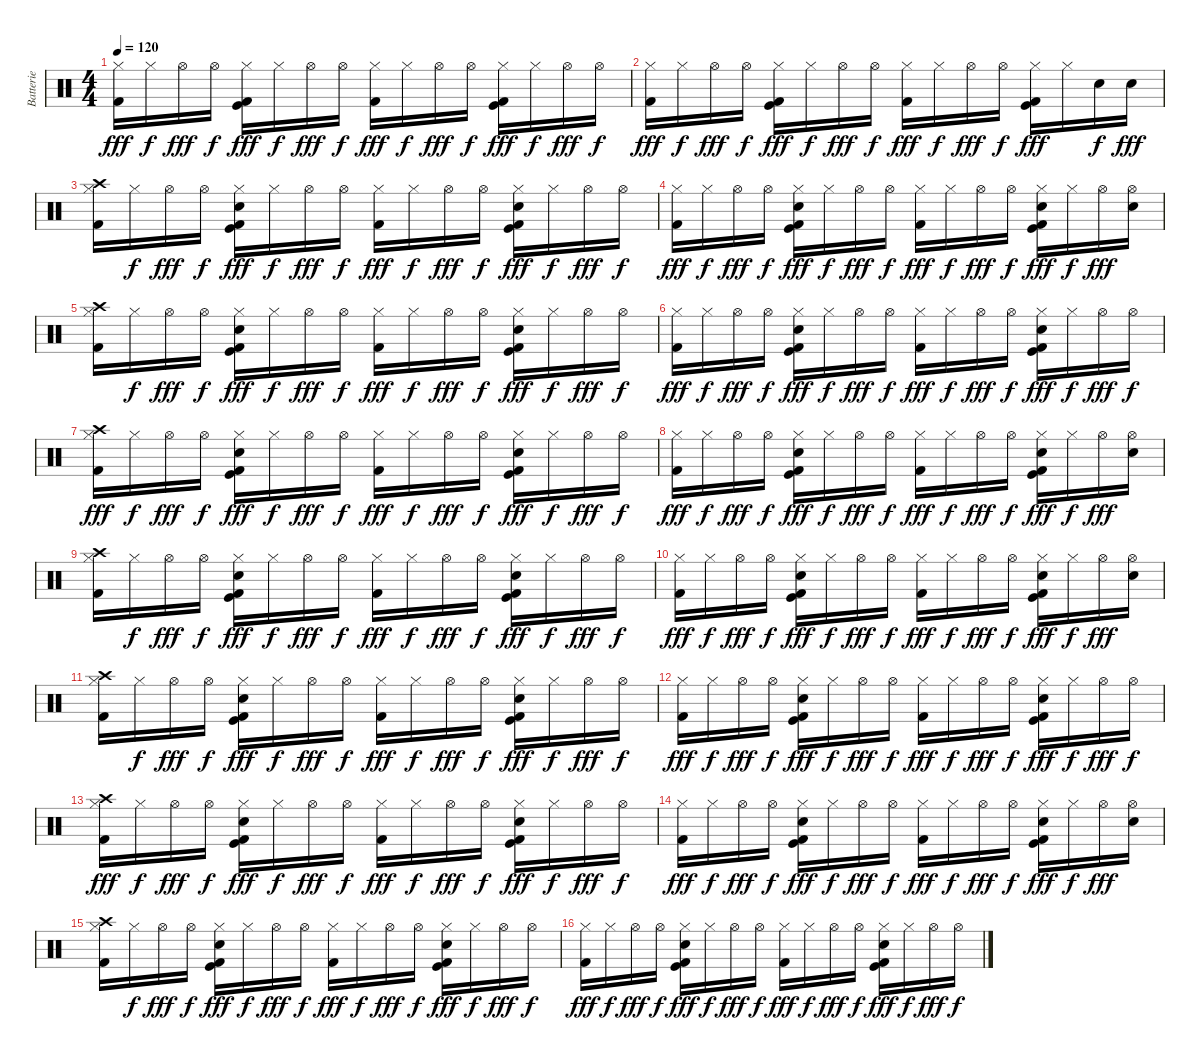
\track ("Batterie" "Batterie") {instrument percussion}
\staff {score}
\articulation defaults
\ts (4 4)
\tempo 120
\clef neutral
\ks c
("Hi-Hat (closed)" "Kick (hit) 2").16{dy fff} "Hi-Hat (closed)".16{dy f} "Hi-Hat (open)".16{dy fff} "Hi-Hat (open)".16{dy f} ("Hi-Hat (closed)" "Kick (hit)" "Kick (hit) 2").16{dy fff} "Hi-Hat (closed)".16{dy f} "Hi-Hat (open)".16{dy fff} "Hi-Hat (open)".16{dy f} ("Hi-Hat (closed)" "Kick (hit) 2").16{dy fff} "Hi-Hat (closed)".16{dy f} "Hi-Hat (open)".16{dy fff} "Hi-Hat (open)".16{dy f} ("Hi-Hat (closed)" "Kick (hit)" "Kick (hit) 2").16{dy fff} "Hi-Hat (closed)".16{dy f} "Hi-Hat (open)".16{dy fff} "Hi-Hat (open)".16{dy f} |
("Hi-Hat (closed)" "Kick (hit) 2").16{dy fff} "Hi-Hat (closed)".16{dy f} "Hi-Hat (open)".16{dy fff} "Hi-Hat (open)".16{dy f} ("Hi-Hat (closed)" "Kick (hit)" "Kick (hit) 2").16{dy fff} "Hi-Hat (closed)".16{dy f} "Hi-Hat (open)".16{dy fff} "Hi-Hat (open)".16{dy f} ("Hi-Hat (closed)" "Kick (hit) 2").16{dy fff} "Hi-Hat (closed)".16{dy f} "Hi-Hat (open)".16{dy fff} "Hi-Hat (open)".16{dy f} ("Hi-Hat (closed)" "Kick (hit)" "Kick (hit) 2").16{dy fff} "Hi-Hat (closed)".16 "Electric Snare (hit)".16{dy f} "Electric Snare (hit)".16{dy fff} |
("Hi-Hat (closed)" "Crash high (hit)" "Kick (hit) 2").16 "Hi-Hat (closed)".16{dy f} "Hi-Hat (open)".16{dy fff} "Hi-Hat (open)".16{dy f} ("Hi-Hat (closed)" "Electric Snare (hit)" "Kick (hit)" "Kick (hit) 2").16{dy fff} "Hi-Hat (closed)".16{dy f} "Hi-Hat (open)".16{dy fff} "Hi-Hat (open)".16{dy f} ("Hi-Hat (closed)" "Kick (hit) 2").16{dy fff} "Hi-Hat (closed)".16{dy f} "Hi-Hat (open)".16{dy fff} "Hi-Hat (open)".16{dy f} ("Hi-Hat (closed)" "Electric Snare (hit)" "Kick (hit)" "Kick (hit) 2").16{dy fff} "Hi-Hat (closed)".16{dy f} "Hi-Hat (open)".16{dy fff} "Hi-Hat (open)".16{dy f} |
("Hi-Hat (closed)" "Kick (hit) 2").16{dy fff} "Hi-Hat (closed)".16{dy f} "Hi-Hat (open)".16{dy fff} "Hi-Hat (open)".16{dy f} ("Hi-Hat (closed)" "Electric Snare (hit)" "Kick (hit) 2" "Kick (hit)").16{dy fff} "Hi-Hat (closed)".16{dy f} "Hi-Hat (open)".16{dy fff} "Hi-Hat (open)".16{dy f} ("Hi-Hat (closed)" "Kick (hit) 2").16{dy fff} "Hi-Hat (closed)".16{dy f} "Hi-Hat (open)".16{dy fff} "Hi-Hat (open)".16{dy f} ("Hi-Hat (closed)" "Electric Snare (hit)" "Kick (hit)" "Kick (hit) 2").16{dy fff} "Hi-Hat (closed)".16{dy f} "Hi-Hat (open)".16{dy fff} ("Hi-Hat (open)" "Electric Snare (hit)").16 |
("Hi-Hat (closed)" "Crash high (hit)" "Kick (hit) 2").16 "Hi-Hat (closed)".16{dy f} "Hi-Hat (open)".16{dy fff} "Hi-Hat (open)".16{dy f} ("Hi-Hat (closed)" "Electric Snare (hit)" "Kick (hit)" "Kick (hit) 2").16{dy fff} "Hi-Hat (closed)".16{dy f} "Hi-Hat (open)".16{dy fff} "Hi-Hat (open)".16{dy f} ("Hi-Hat (closed)" "Kick (hit) 2").16{dy fff} "Hi-Hat (closed)".16{dy f} "Hi-Hat (open)".16{dy fff} "Hi-Hat (open)".16{dy f} ("Hi-Hat (closed)" "Electric Snare (hit)" "Kick (hit)" "Kick (hit) 2").16{dy fff} "Hi-Hat (closed)".16{dy f} "Hi-Hat (open)".16{dy fff} "Hi-Hat (open)".16{dy f} |
("Hi-Hat (closed)" "Kick (hit) 2").16{dy fff} "Hi-Hat (closed)".16{dy f} "Hi-Hat (open)".16{dy fff} "Hi-Hat (open)".16{dy f} ("Hi-Hat (closed)" "Electric Snare (hit)" "Kick (hit)" "Kick (hit) 2").16{dy fff} "Hi-Hat (closed)".16{dy f} "Hi-Hat (open)".16{dy fff} "Hi-Hat (open)".16{dy f} ("Hi-Hat (closed)" "Kick (hit) 2").16{dy fff} "Hi-Hat (closed)".16{dy f} "Hi-Hat (open)".16{dy fff} "Hi-Hat (open)".16{dy f} ("Hi-Hat (closed)" "Electric Snare (hit)" "Kick (hit)" "Kick (hit) 2").16{dy fff} "Hi-Hat (closed)".16{dy f} "Hi-Hat (open)".16{dy fff} "Hi-Hat (open)".16{dy f} |
("Hi-Hat (closed)" "Crash high (hit)" "Kick (hit) 2").16{dy fff} "Hi-Hat (closed)".16{dy f} "Hi-Hat (open)".16{dy fff} "Hi-Hat (open)".16{dy f} ("Hi-Hat (closed)" "Electric Snare (hit)" "Kick (hit) 2" "Kick (hit)").16{dy fff} "Hi-Hat (closed)".16{dy f} "Hi-Hat (open)".16{dy fff} "Hi-Hat (open)".16{dy f} ("Hi-Hat (closed)" "Kick (hit) 2").16{dy fff} "Hi-Hat (closed)".16{dy f} "Hi-Hat (open)".16{dy fff} "Hi-Hat (open)".16{dy f} ("Hi-Hat (closed)" "Electric Snare (hit)" "Kick (hit)" "Kick (hit) 2").16{dy fff} "Hi-Hat (closed)".16{dy f} "Hi-Hat (open)".16{dy fff} "Hi-Hat (open)".16{dy f} |
("Hi-Hat (closed)" "Kick (hit) 2").16{dy fff} "Hi-Hat (closed)".16{dy f} "Hi-Hat (open)".16{dy fff} "Hi-Hat (open)".16{dy f} ("Hi-Hat (closed)" "Electric Snare (hit)" "Kick (hit) 2" "Kick (hit)").16{dy fff} "Hi-Hat (closed)".16{dy f} "Hi-Hat (open)".16{dy fff} "Hi-Hat (open)".16{dy f} ("Hi-Hat (closed)" "Kick (hit) 2").16{dy fff} "Hi-Hat (closed)".16{dy f} "Hi-Hat (open)".16{dy fff} "Hi-Hat (open)".16{dy f} ("Hi-Hat (closed)" "Electric Snare (hit)" "Kick (hit)" "Kick (hit) 2").16{dy fff} "Hi-Hat (closed)".16{dy f} "Hi-Hat (open)".16{dy fff} ("Hi-Hat (open)" "Electric Snare (hit)").16 |
("Hi-Hat (closed)" "Crash high (hit)" "Kick (hit) 2").16 "Hi-Hat (closed)".16{dy f} "Hi-Hat (open)".16{dy fff} "Hi-Hat (open)".16{dy f} ("Hi-Hat (closed)" "Electric Snare (hit)" "Kick (hit) 2" "Kick (hit)").16{dy fff} "Hi-Hat (closed)".16{dy f} "Hi-Hat (open)".16{dy fff} "Hi-Hat (open)".16{dy f} ("Hi-Hat (closed)" "Kick (hit) 2").16{dy fff} "Hi-Hat (closed)".16{dy f} "Hi-Hat (open)".16{dy fff} "Hi-Hat (open)".16{dy f} ("Hi-Hat (closed)" "Electric Snare (hit)" "Kick (hit)" "Kick (hit) 2").16{dy fff} "Hi-Hat (closed)".16{dy f} "Hi-Hat (open)".16{dy fff} "Hi-Hat (open)".16{dy f} |
("Hi-Hat (closed)" "Kick (hit) 2").16{dy fff} "Hi-Hat (closed)".16{dy f} "Hi-Hat (open)".16{dy fff} "Hi-Hat (open)".16{dy f} ("Hi-Hat (closed)" "Electric Snare (hit)" "Kick (hit) 2" "Kick (hit)").16{dy fff} "Hi-Hat (closed)".16{dy f} "Hi-Hat (open)".16{dy fff} "Hi-Hat (open)".16{dy f} ("Hi-Hat (closed)" "Kick (hit) 2").16{dy fff} "Hi-Hat (closed)".16{dy f} "Hi-Hat (open)".16{dy fff} "Hi-Hat (open)".16{dy f} ("Hi-Hat (closed)" "Electric Snare (hit)" "Kick (hit)" "Kick (hit) 2").16{dy fff} "Hi-Hat (closed)".16{dy f} "Hi-Hat (open)".16{dy fff} ("Hi-Hat (open)" "Electric Snare (hit)").16 |
("Hi-Hat (closed)" "Crash high (hit)" "Kick (hit) 2").16 "Hi-Hat (closed)".16{dy f} "Hi-Hat (open)".16{dy fff} "Hi-Hat (open)".16{dy f} ("Hi-Hat (closed)" "Electric Snare (hit)" "Kick (hit) 2" "Kick (hit)").16{dy fff} "Hi-Hat (closed)".16{dy f} "Hi-Hat (open)".16{dy fff} "Hi-Hat (open)".16{dy f} ("Hi-Hat (closed)" "Kick (hit) 2").16{dy fff} "Hi-Hat (closed)".16{dy f} "Hi-Hat (open)".16{dy fff} "Hi-Hat (open)".16{dy f} ("Hi-Hat (closed)" "Electric Snare (hit)" "Kick (hit)" "Kick (hit) 2").16{dy fff} "Hi-Hat (closed)".16{dy f} "Hi-Hat (open)".16{dy fff} "Hi-Hat (open)".16{dy f} |
("Hi-Hat (closed)" "Kick (hit) 2").16{dy fff} "Hi-Hat (closed)".16{dy f} "Hi-Hat (open)".16{dy fff} "Hi-Hat (open)".16{dy f} ("Hi-Hat (closed)" "Electric Snare (hit)" "Kick (hit) 2" "Kick (hit)").16{dy fff} "Hi-Hat (closed)".16{dy f} "Hi-Hat (open)".16{dy fff} "Hi-Hat (open)".16{dy f} ("Hi-Hat (closed)" "Kick (hit) 2").16{dy fff} "Hi-Hat (closed)".16{dy f} "Hi-Hat (open)".16{dy fff} "Hi-Hat (open)".16{dy f} ("Hi-Hat (closed)" "Electric Snare (hit)" "Kick (hit)" "Kick (hit) 2").16{dy fff} "Hi-Hat (closed)".16{dy f} "Hi-Hat (open)".16{dy fff} "Hi-Hat (open)".16{dy f} |
("Hi-Hat (closed)" "Crash high (hit)" "Kick (hit) 2").16{dy fff} "Hi-Hat (closed)".16{dy f} "Hi-Hat (open)".16{dy fff} "Hi-Hat (open)".16{dy f} ("Hi-Hat (closed)" "Electric Snare (hit)" "Kick (hit) 2" "Kick (hit)").16{dy fff} "Hi-Hat (closed)".16{dy f} "Hi-Hat (open)".16{dy fff} "Hi-Hat (open)".16{dy f} ("Hi-Hat (closed)" "Kick (hit) 2").16{dy fff} "Hi-Hat (closed)".16{dy f} "Hi-Hat (open)".16{dy fff} "Hi-Hat (open)".16{dy f} ("Hi-Hat (closed)" "Electric Snare (hit)" "Kick (hit)" "Kick (hit) 2").16{dy fff} "Hi-Hat (closed)".16{dy f} "Hi-Hat (open)".16{dy fff} "Hi-Hat (open)".16{dy f} |
("Hi-Hat (closed)" "Kick (hit) 2").16{dy fff} "Hi-Hat (closed)".16{dy f} "Hi-Hat (open)".16{dy fff} "Hi-Hat (open)".16{dy f} ("Hi-Hat (closed)" "Electric Snare (hit)" "Kick (hit) 2" "Kick (hit)").16{dy fff} "Hi-Hat (closed)".16{dy f} "Hi-Hat (open)".16{dy fff} "Hi-Hat (open)".16{dy f} ("Hi-Hat (closed)" "Kick (hit) 2").16{dy fff} "Hi-Hat (closed)".16{dy f} "Hi-Hat (open)".16{dy fff} "Hi-Hat (open)".16{dy f} ("Hi-Hat (closed)" "Electric Snare (hit)" "Kick (hit)" "Kick (hit) 2").16{dy fff} "Hi-Hat (closed)".16{dy f} "Hi-Hat (open)".16{dy fff} ("Hi-Hat (open)" "Electric Snare (hit)").16 |
("Hi-Hat (closed)" "Crash high (hit)" "Kick (hit) 2").16 "Hi-Hat (closed)".16{dy f} "Hi-Hat (open)".16{dy fff} "Hi-Hat (open)".16{dy f} ("Hi-Hat (closed)" "Electric Snare (hit)" "Kick (hit) 2" "Kick (hit)").16{dy fff} "Hi-Hat (closed)".16{dy f} "Hi-Hat (open)".16{dy fff} "Hi-Hat (open)".16{dy f} ("Hi-Hat (closed)" "Kick (hit) 2").16{dy fff} "Hi-Hat (closed)".16{dy f} "Hi-Hat (open)".16{dy fff} "Hi-Hat (open)".16{dy f} ("Hi-Hat (closed)" "Electric Snare (hit)" "Kick (hit)" "Kick (hit) 2").16{dy fff} "Hi-Hat (closed)".16{dy f} "Hi-Hat (open)".16{dy fff} "Hi-Hat (open)".16{dy f} |
("Hi-Hat (closed)" "Kick (hit) 2").16{dy fff} "Hi-Hat (closed)".16{dy f} "Hi-Hat (open)".16{dy fff} "Hi-Hat (open)".16{dy f} ("Hi-Hat (closed)" "Electric Snare (hit)" "Kick (hit) 2" "Kick (hit)").16{dy fff} "Hi-Hat (closed)".16{dy f} "Hi-Hat (open)".16{dy fff} "Hi-Hat (open)".16{dy f} ("Hi-Hat (closed)" "Kick (hit) 2").16{dy fff} "Hi-Hat (closed)".16{dy f} "Hi-Hat (open)".16{dy fff} "Hi-Hat (open)".16{dy f} ("Hi-Hat (closed)" "Electric Snare (hit)" "Kick (hit)" "Kick (hit) 2").16{dy fff} "Hi-Hat (closed)".16{dy f} "Hi-Hat (open)".16{dy fff} "Hi-Hat (open)".16{dy f}
